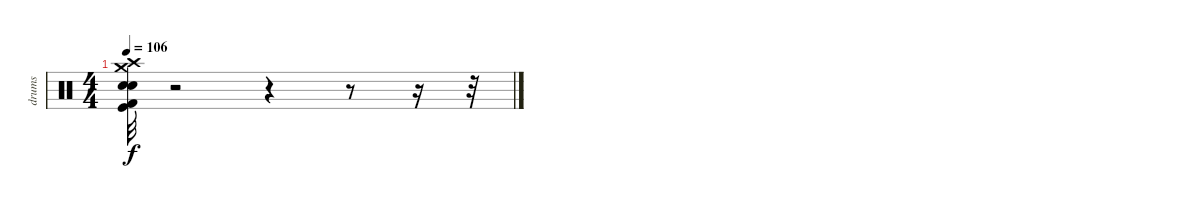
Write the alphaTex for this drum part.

\track ("drums" "drums") {instrument percussion}
\staff {score}
\articulation defaults
\ts (4 4)
\tempo 106
\clef neutral
\ks c
("Kick (hit) 2" "Kick (hit)" "Electric Snare (hit)" "Snare (hit) 2" "Crash high (hit)" "Crash medium (hit)").32{dy f} r.2 r.4 r.8 r.16 r.32
